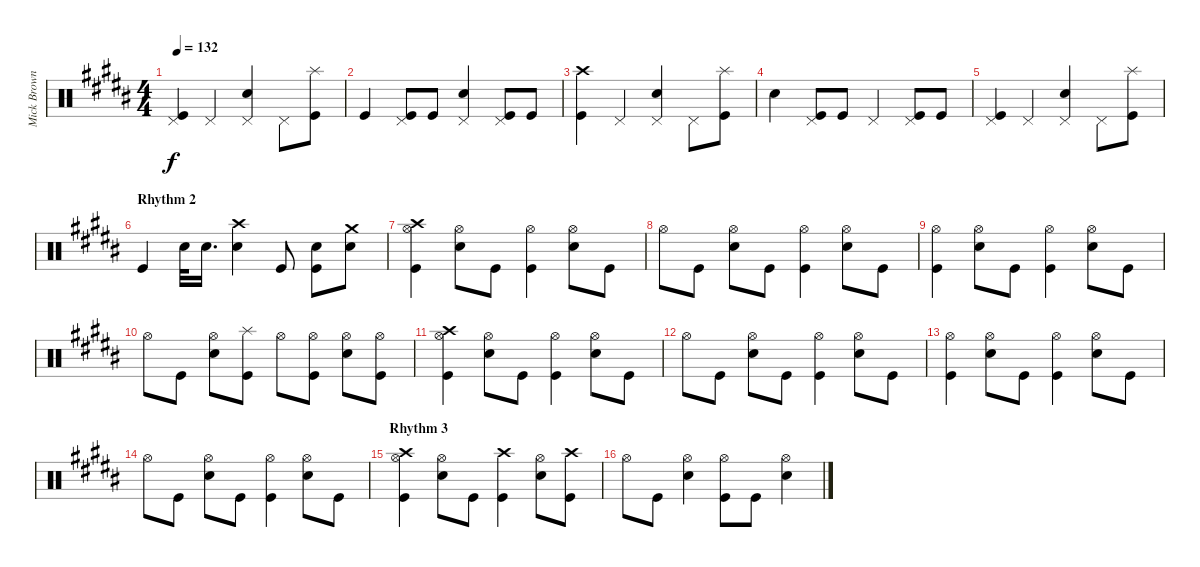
\track ("Mick Brown" "Mick Brown") {instrument percussion}
\staff {score}
\articulation defaults
\ts (4 4)
\tempo 132
\clef neutral
\ks g#minor
("Kick (hit)" "Pedal Hi-Hat (hit)").4{dy f} "Pedal Hi-Hat (hit)".4 ("Snare (hit) 2" "Pedal Hi-Hat (hit)").4 "Pedal Hi-Hat (hit)".8 ("Kick (hit)" "Splash (hit)").8 |
"Kick (hit)".4 ("Kick (hit)" "Pedal Hi-Hat (hit)").8 "Kick (hit)".8 ("Snare (hit) 2" "Pedal Hi-Hat (hit)").4 ("Kick (hit)" "Pedal Hi-Hat (hit)").8 "Kick (hit)".8 |
("Kick (hit)" "Crash high (hit)").4 "Pedal Hi-Hat (hit)".4 ("Pedal Hi-Hat (hit)" "Snare (hit) 2").4 "Pedal Hi-Hat (hit)".8 ("Kick (hit)" "Splash (hit)").8 |
"Snare (hit) 2".4 ("Pedal Hi-Hat (hit)" "Kick (hit)").8 "Kick (hit)".8 "Pedal Hi-Hat (hit)".4 ("Pedal Hi-Hat (hit)" "Kick (hit)").8 "Kick (hit)".8 |
("Kick (hit)" "Pedal Hi-Hat (hit)").4 "Pedal Hi-Hat (hit)".4 ("Snare (hit) 2" "Pedal Hi-Hat (hit)").4 "Pedal Hi-Hat (hit)".8 ("Kick (hit)" "Splash (hit)").8 |
\section ("" "Rhythm 2")
"Kick (hit)".4 "Snare (hit) 2".32 "Snare (hit) 2".16{d} ("Crash high (hit)" "Snare (hit) 2").4 "Kick (hit)".8 ("Kick (hit)" "Snare (hit) 2").8 ("Snare (hit) 2" "Crash medium (hit)").8 |
("Crash high (hit)" "Hi-Hat (open)" "Kick (hit)").4 ("Snare (hit) 2" "Hi-Hat (open)").8 "Kick (hit)".8 ("Kick (hit)" "Hi-Hat (open)").4 ("Snare (hit) 2" "Hi-Hat (open)").8 "Kick (hit)".8 |
"Hi-Hat (open)".8 "Kick (hit)".8 ("Hi-Hat (open)" "Snare (hit) 2").8 "Kick (hit)".8 ("Kick (hit)" "Hi-Hat (open)").4 ("Snare (hit) 2" "Hi-Hat (open)").8 "Kick (hit)".8 |
("Hi-Hat (open)" "Kick (hit)").4 ("Hi-Hat (open)" "Snare (hit) 2").8 "Kick (hit)".8 ("Kick (hit)" "Hi-Hat (open)").4 ("Snare (hit) 2" "Hi-Hat (open)").8 "Kick (hit)".8 |
"Hi-Hat (open)".8 "Kick (hit)".8 ("Hi-Hat (open)" "Snare (hit) 2").8 ("Kick (hit)" "Splash (hit)").8 "Hi-Hat (open)".8 ("Hi-Hat (open)" "Kick (hit)").8 ("Hi-Hat (open)" "Snare (hit) 2").8 ("Hi-Hat (open)" "Kick (hit)").8 |
("Hi-Hat (open)" "Kick (hit)" "Crash high (hit)").4 ("Snare (hit) 2" "Hi-Hat (open)").8 "Kick (hit)".8 ("Hi-Hat (open)" "Kick (hit)").4 ("Hi-Hat (open)" "Snare (hit) 2").8 "Kick (hit)".8 |
"Hi-Hat (open)".8 "Kick (hit)".8 ("Snare (hit) 2" "Hi-Hat (open)").8 "Kick (hit)".8 ("Hi-Hat (open)" "Kick (hit)").4 ("Hi-Hat (open)" "Snare (hit) 2").8 "Kick (hit)".8 |
("Kick (hit)" "Hi-Hat (open)").4 ("Snare (hit) 2" "Hi-Hat (open)").8 "Kick (hit)".8 ("Kick (hit)" "Hi-Hat (open)").4 ("Snare (hit) 2" "Hi-Hat (open)").8 "Kick (hit)".8 |
"Hi-Hat (open)".8 "Kick (hit)".8 ("Hi-Hat (open)" "Snare (hit) 2").8 "Kick (hit)".8 ("Kick (hit)" "Hi-Hat (open)").4 ("Snare (hit) 2" "Hi-Hat (open)").8 "Kick (hit)".8 |
\section ("" "Rhythm 3")
("Hi-Hat (open)" "Kick (hit)" "Crash high (hit)").4 ("Hi-Hat (open)" "Snare (hit) 2").8 "Kick (hit)".8 ("Kick (hit)" "Crash high (hit)").4 ("Snare (hit) 2" "Hi-Hat (open)").8 ("Crash high (hit)" "Kick (hit)").8 |
"Hi-Hat (open)".8 "Kick (hit)".8 ("Hi-Hat (open)" "Snare (hit) 2").4 ("Hi-Hat (open)" "Kick (hit)").8 "Kick (hit)".8 ("Snare (hit) 2" "Hi-Hat (open)").4
